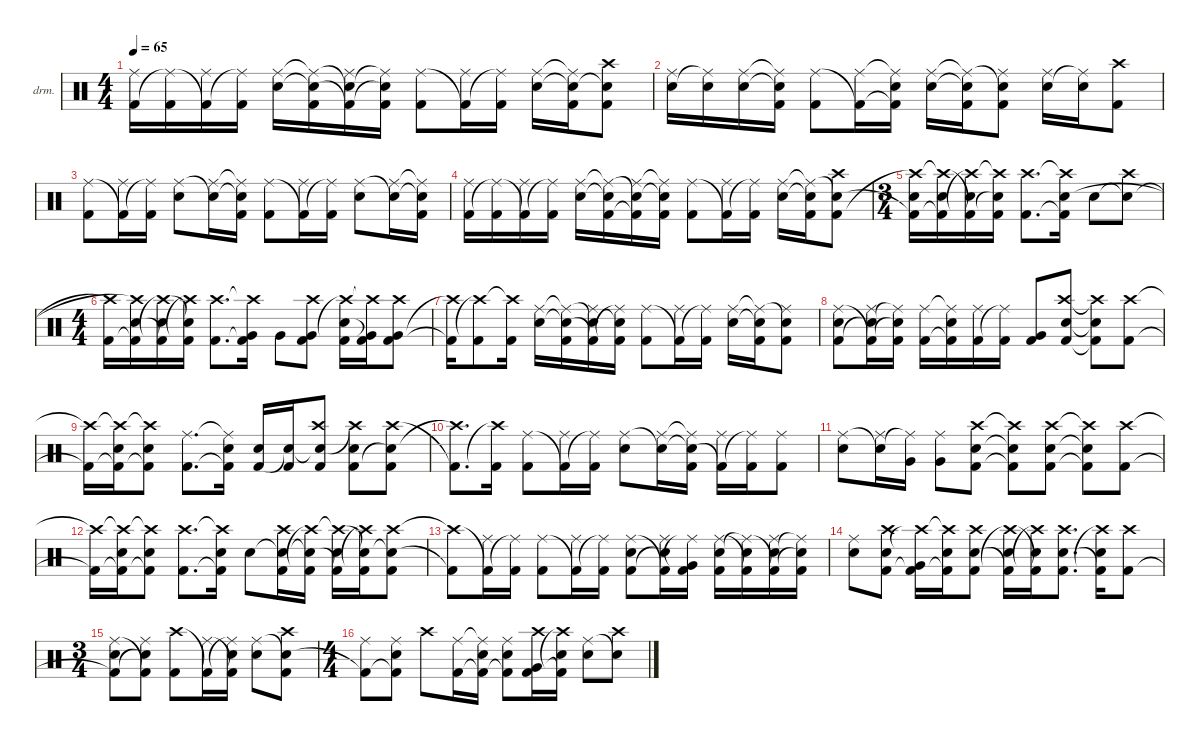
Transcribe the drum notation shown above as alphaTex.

\hideDynamics
\bracketExtendMode nobrackets
\firstSystemTrackNameOrientation horizontal
\otherSystemsTrackNameOrientation horizontal
\track ("Drums" "drm.") {instrument percussion}
\staff {score}
\articulation defaults
\ts (4 4)
\tempo 65
\clef neutral
\ks aminor
("Kick (hit) 2" "Ride (middle)"{acc #}).16{dy ff beam Down} ("Ride (middle)"{t acc #} "Kick (hit) 2").16{beam Down} ("Kick (hit) 2"{t} "Ride (middle)"{acc #}).16{beam Down} ("Ride (middle)"{t acc #} "Kick (hit) 2").16{beam Down} ("Ride (middle)"{acc #} "Snare (hit) 2").16{beam Down} ("Ride (middle)"{t acc #} "Snare (hit) 2"{t} "Kick (hit) 2").16{beam Down} ("Snare (hit) 2"{t} "Kick (hit) 2"{t} "Ride (middle)"{acc #}).16{beam Down} ("Ride (middle)"{t acc #} "Snare (hit) 2"{t} "Kick (hit) 2").16{beam Down} ("Ride (middle)"{acc #} "Kick (hit) 2").8{beam Down} ("Kick (hit) 2"{t} "Ride (middle)"{acc #}).16{beam Down} ("Ride (middle)"{t acc #} "Kick (hit) 2").16{beam Down} ("Ride (middle)"{acc #} "Snare (hit) 2").16{beam Down} ("Ride (middle)"{t acc #} "Snare (hit) 2"{t} "Kick (hit) 2").16{beam Down} ("Kick (hit) 2" "Snare (hit) 2"{t} "Crash high (hit)"{acc #}).8{beam Down} |
("Snare (hit) 2" "Ride (middle)"{acc #}).16{beam Down} ("Ride (middle)"{t acc #} "Snare (hit) 2").16{beam Down} ("Snare (hit) 2" "Ride (middle)"{acc #}).16{beam Down} ("Snare (hit) 2"{t} "Ride (middle)"{t acc #} "Kick (hit) 2").16{beam Down} ("Ride (middle)"{acc #} "Kick (hit) 2").8{beam Down} ("Kick (hit) 2"{t} "Ride (middle)"{acc #}).16{beam Down} ("Kick (hit) 2"{t} "Ride (middle)"{t acc #} "Snare (hit) 2").16{beam Down} ("Ride (middle)"{acc #} "Snare (hit) 2").16{beam Down} ("Ride (middle)"{t acc #} "Snare (hit) 2"{t} "Kick (hit) 2").16{beam Down} ("Snare (hit) 2"{t} "Kick (hit) 2" "Ride (middle)"{acc #}).8{beam Down} ("Snare (hit) 2" "Ride (middle)"{acc #}).16{beam Down} ("Ride (middle)"{t acc #} "Snare (hit) 2").16{beam Down} ("Kick (hit) 2" "Crash high (hit)"{acc #}).8{beam Down} |
("Ride (middle)"{acc #} "Kick (hit) 2").8{beam Down} ("Kick (hit) 2"{t} "Ride (middle)"{acc #}).16{beam Down} ("Ride (middle)"{t acc #} "Kick (hit) 2").16{beam Down} ("Ride (middle)"{acc #} "Snare (hit) 2").8{beam Down} ("Snare (hit) 2"{t} "Ride (middle)"{acc #}).16{beam Down} ("Snare (hit) 2"{t} "Ride (middle)"{t acc #} "Kick (hit) 2").16{beam Down} ("Ride (middle)"{acc #} "Kick (hit) 2").8{beam Down} ("Kick (hit) 2"{t} "Ride (middle)"{acc #}).16{beam Down} ("Ride (middle)"{t acc #} "Kick (hit) 2").16{beam Down} ("Ride (middle)"{acc #} "Snare (hit) 2").8{beam Down} ("Snare (hit) 2"{t} "Ride (middle)"{acc #}).16{beam Down} ("Snare (hit) 2"{t} "Ride (middle)"{t acc #} "Kick (hit) 2").16{beam Down} |
("Kick (hit) 2" "Ride (middle)"{acc #}).16{beam Down} ("Ride (middle)"{t acc #} "Kick (hit) 2").16{beam Down} ("Kick (hit) 2"{t} "Ride (middle)"{acc #}).16{beam Down} ("Ride (middle)"{t acc #} "Kick (hit) 2").16{beam Down} ("Ride (middle)"{acc #} "Snare (hit) 2").16{beam Down} ("Ride (middle)"{t acc #} "Snare (hit) 2"{t} "Kick (hit) 2").16{beam Down} ("Snare (hit) 2"{t} "Ride (middle)"{acc #} "Kick (hit) 2"{t}).16{beam Down} ("Snare (hit) 2"{t} "Ride (middle)"{t acc #} "Kick (hit) 2").16{beam Down} ("Ride (middle)"{acc #} "Kick (hit) 2").8{beam Down} ("Kick (hit) 2"{t} "Ride (middle)"{acc #}).16{beam Down} ("Ride (middle)"{t acc #} "Kick (hit) 2").16{beam Down} ("Ride (middle)"{acc #} "Snare (hit) 2").16{beam Down} ("Ride (middle)"{t acc #} "Snare (hit) 2"{t} "Kick (hit) 2").16{beam Down} ("Snare (hit) 2"{t} "Kick (hit) 2" "Crash high (hit)"{acc #}).8{beam Down} |
\ts (3 4)
("Kick (hit) 2"{t} "Crash high (hit)"{t acc #} "Snare (hit) 2").16{beam Down} ("Kick (hit) 2"{t} "Crash high (hit)"{t acc #} "Snare (hit) 2").16{beam Down} ("Crash high (hit)"{t acc #} "Kick (hit) 2"{t} "Snare (hit) 2").16{beam Down} ("Crash high (hit)"{t acc #} "Snare (hit) 2"{t} "Kick (hit) 2").16{beam Down} ("Kick (hit) 2" "Crash high (hit)"{acc #}).8{d beam Down} ("Kick (hit) 2"{t} "Crash high (hit)"{t acc #} "Snare (hit) 2").16{beam Down} "Snare (hit) 2".8{beam Down} ("Snare (hit) 2"{t} "Crash high (hit)"{acc #}).8{beam Down} |
\ts (4 4)
("Crash high (hit)"{t acc #} "Kick (hit) 2").16{beam Down} ("Snare (hit) 2" "Kick (hit) 2"{t} "Crash high (hit)"{t acc #}).16{beam Down} ("Kick (hit) 2"{t} "Crash high (hit)"{t acc #} "Snare (hit) 2").16{beam Down} ("Crash high (hit)"{t acc #} "Snare (hit) 2"{t} "Kick (hit) 2").16{beam Down} ("Kick (hit) 2" "Crash high (hit)"{acc #}).8{d beam Down} ("Kick (hit) 2"{t} "Crash high (hit)"{t acc #} "Very Low Tom (hit)").16{beam Down} "Very Low Tom (hit)".8{beam Down} ("Kick (hit) 2" "Very Low Tom (hit)" "Crash high (hit)"{acc #}).8{beam Down} ("Crash high (hit)"{t acc #} "Snare (hit) 2" "Kick (hit) 2").16{beam Down} ("Crash high (hit)"{t acc #} "Kick (hit) 2"{t} "Very Low Tom (hit)").16{beam Down} ("Kick (hit) 2" "Very Low Tom (hit)" "Crash high (hit)"{acc #}).8{beam Down} |
("Kick (hit) 2"{t} "Crash high (hit)"{t acc #}).16{beam Down} ("Crash high (hit)"{t acc #} "Kick (hit) 2").8{beam Down} ("Crash high (hit)"{t acc #} "Kick (hit) 2").16{beam Down} ("Ride (middle)"{acc #} "Snare (hit) 2").16{beam Down} ("Ride (middle)"{t acc #} "Snare (hit) 2"{t} "Kick (hit) 2").16{beam Down} ("Snare (hit) 2"{t} "Kick (hit) 2"{t} "Ride (middle)"{acc #}).16{beam Down} ("Snare (hit) 2"{t} "Ride (middle)"{t acc #} "Kick (hit) 2").16{beam Down} ("Ride (middle)"{acc #} "Kick (hit) 2").8{beam Down} ("Kick (hit) 2"{t} "Ride (middle)"{acc #}).16{beam Down} ("Ride (middle)"{t acc #} "Kick (hit) 2").16{beam Down} ("Ride (middle)"{acc #} "Snare (hit) 2").16{beam Down} ("Ride (middle)"{t acc #} "Snare (hit) 2"{t} "Kick (hit) 2").16{beam Down} ("Snare (hit) 2"{t} "Kick (hit) 2" "Ride (middle)"{acc #}).8{beam Down} |
("Ride (middle)"{acc #} "Kick (hit) 2" "Snare (hit) 2").8{beam Down} ("Kick (hit) 2"{t} "Snare (hit) 2"{t} "Ride (middle)"{acc #}).16{beam Down} ("Snare (hit) 2"{t} "Ride (middle)"{t acc #} "Kick (hit) 2").16{beam Down} ("Kick (hit) 2" "Ride (middle)"{acc #}).16{beam Down} ("Kick (hit) 2"{t} "Ride (middle)"{t acc #} "Snare (hit) 2").16{beam Down} ("Kick (hit) 2" "Ride (middle)"{acc #}).16{beam Down} ("Ride (middle)"{t acc #} "Kick (hit) 2").16{beam Down} ("Kick (hit) 2" "Very Low Tom (hit)").8{beam Up} ("Snare (hit) 2" "Kick (hit) 2" "Crash high (hit)"{acc #}).8{beam Up} ("Snare (hit) 2"{t} "Kick (hit) 2"{t} "Crash high (hit)"{t acc #}).8{beam Down} ("Kick (hit) 2" "Crash high (hit)"{acc #}).8{beam Down} |
("Kick (hit) 2"{t} "Crash high (hit)"{t acc #}).16{beam Down} ("Kick (hit) 2"{t} "Crash high (hit)"{t acc #} "Snare (hit) 2").16{beam Down} ("Kick (hit) 2"{t} "Crash high (hit)"{t acc #} "Snare (hit) 2").8{beam Down} ("Kick (hit) 2" "Ride (middle)"{acc #}).8{d beam Down} ("Kick (hit) 2"{t} "Ride (middle)"{t acc #} "Snare (hit) 2").16{beam Down} ("Kick (hit) 2" "Snare (hit) 2").16{beam Up} ("Snare (hit) 2"{t} "Kick (hit) 2").16{beam Up} ("Snare (hit) 2"{t} "Kick (hit) 2" "Crash high (hit)"{acc #}).8{beam Up} ("Crash high (hit)"{t acc #} "Kick (hit) 2" "Snare (hit) 2").8{beam Down} ("Crash high (hit)"{acc #} "Snare (hit) 2"{t} "Kick (hit) 2").8{beam Down} |
("Kick (hit) 2"{t} "Crash high (hit)"{t acc #}).8{d beam Down} ("Crash high (hit)"{t acc #} "Kick (hit) 2").16{beam Down} ("Ride (middle)"{acc #} "Kick (hit) 2").8{beam Down} ("Kick (hit) 2"{t} "Ride (middle)"{acc #}).16{beam Down} ("Ride (middle)"{t acc #} "Kick (hit) 2").16{beam Down} ("Ride (middle)"{acc #} "Snare (hit) 2").8{beam Down} ("Snare (hit) 2"{t} "Ride (middle)"{acc #}).16{beam Down} ("Snare (hit) 2"{t} "Ride (middle)"{t acc #} "Kick (hit) 2").16{beam Down} ("Kick (hit) 2"{t} "Ride (middle)"{acc #}).16{beam Down} ("Ride (middle)"{t acc #} "Kick (hit) 2").16{beam Down} ("Kick (hit) 2" "Ride (middle)"{acc #}).8{beam Down} |
("Ride (middle)"{acc #} "Snare (hit) 2").8{beam Down} ("Snare (hit) 2"{t} "Ride (middle)"{acc #}).16{beam Down} ("Ride (middle)"{t acc #} "Very Low Tom (hit)").16{beam Down} ("Very Low Tom (hit)" "Ride (middle)"{acc #}).8{beam Down} ("Kick (hit) 2" "Snare (hit) 2" "Crash high (hit)"{acc #}).8{beam Down} ("Kick (hit) 2"{t} "Snare (hit) 2"{t} "Crash high (hit)"{t acc #}).8{beam Down} ("Snare (hit) 2" "Kick (hit) 2" "Crash high (hit)"{acc #}).8{beam Down} ("Snare (hit) 2"{t} "Kick (hit) 2"{t} "Crash high (hit)"{t acc #}).8{beam Down} ("Kick (hit) 2" "Crash high (hit)"{acc #}).8{beam Down} |
("Kick (hit) 2"{t} "Crash high (hit)"{t acc #}).16{beam Down} ("Kick (hit) 2"{t} "Crash high (hit)"{t acc #} "Snare (hit) 2").16{beam Down} ("Kick (hit) 2"{t} "Crash high (hit)"{t acc #} "Snare (hit) 2").8{beam Down} ("Kick (hit) 2" "Crash high (hit)"{acc #}).8{d beam Down} ("Kick (hit) 2"{t} "Crash high (hit)"{t acc #} "Snare (hit) 2").16{beam Down} "Snare (hit) 2".8{beam Down} ("Snare (hit) 2"{t} "Kick (hit) 2" "Crash high (hit)"{acc #}).16{beam Down} ("Snare (hit) 2"{t} "Crash high (hit)"{t acc #} "Kick (hit) 2").16{beam Down} ("Kick (hit) 2"{t} "Crash high (hit)"{t acc #} "Snare (hit) 2").16{beam Down} ("Crash high (hit)"{t acc #} "Snare (hit) 2"{t} "Kick (hit) 2").16{beam Down} ("Crash high (hit)"{acc #} "Snare (hit) 2"{t} "Kick (hit) 2").8{beam Down} |
("Crash high (hit)"{t acc #} "Kick (hit) 2"{t}).8{beam Down} ("Kick (hit) 2"{t} "Ride (middle)"{acc #}).16{beam Down} ("Ride (middle)"{t acc #} "Kick (hit) 2").16{beam Down} ("Ride (middle)"{acc #} "Kick (hit) 2").8{beam Down} ("Kick (hit) 2"{t} "Ride (middle)"{acc #}).16{beam Down} ("Ride (middle)"{t acc #} "Kick (hit) 2").16{beam Down} ("Ride (middle)"{acc #} "Kick (hit) 2" "Snare (hit) 2").8{beam Down} ("Kick (hit) 2"{t} "Snare (hit) 2"{t} "Ride (middle)"{acc #}).16{beam Down} ("Ride (middle)"{t acc #} "Kick (hit) 2" "Very Low Tom (hit)").16{beam Down} ("Snare (hit) 2" "Ride (middle)"{acc #} "Kick (hit) 2").16{beam Down} ("Ride (middle)"{t acc #} "Kick (hit) 2"{t} "Snare (hit) 2").16{beam Down} ("Kick (hit) 2"{t} "Snare (hit) 2" "Ride (middle)"{acc #}).16{beam Down} ("Snare (hit) 2"{t} "Ride (middle)"{t acc #} "Kick (hit) 2").16{beam Down} |
("Snare (hit) 2" "Ride (middle)"{acc #}).8{beam Down} ("Snare (hit) 2" "Kick (hit) 2" "Crash high (hit)"{acc #}).8{beam Down} ("Crash high (hit)"{t acc #} "Kick (hit) 2"{t} "Very Low Tom (hit)").16{beam Down} ("Crash high (hit)"{t acc #} "Kick (hit) 2"{t} "Snare (hit) 2").16{beam Down} ("Snare (hit) 2" "Kick (hit) 2" "Crash high (hit)"{acc #}).8{beam Down} ("Kick (hit) 2"{t} "Crash high (hit)"{t acc #} "Snare (hit) 2").16{beam Down} ("Crash high (hit)"{t acc #} "Kick (hit) 2"{t} "Snare (hit) 2").16{beam Down} ("Snare (hit) 2" "Kick (hit) 2" "Crash high (hit)"{acc #}).8{d beam Down} ("Kick (hit) 2"{t} "Crash high (hit)"{t acc #} "Snare (hit) 2").16{beam Down} ("Crash high (hit)"{acc #} "Kick (hit) 2").8{beam Down} |
\ts (3 4)
("Ride (middle)"{acc #} "Kick (hit) 2"{t} "Snare (hit) 2").8{beam Down} ("Kick (hit) 2"{t} "Snare (hit) 2"{t} "Ride (middle)"{acc #}).8{beam Down} ("Crash high (hit)"{acc #} "Kick (hit) 2").8{beam Down} ("Kick (hit) 2"{t} "Ride (middle)"{acc #}).16{beam Down} ("Ride (middle)"{t acc #} "Kick (hit) 2"{t} "Snare (hit) 2").16{beam Down} ("Ride (middle)"{acc #} "Snare (hit) 2").8{beam Down} ("Snare (hit) 2"{t} "Crash high (hit)"{acc #} "Kick (hit) 2").8{beam Down} |
\ts (4 4)
("Kick (hit) 2"{t} "Ride (middle)"{acc #}).8{beam Down} ("Kick (hit) 2"{t} "Snare (hit) 2" "Ride (middle)"{acc #}).8{beam Down} "Crash high (hit)"{acc #}.8{beam Down} ("Ride (middle)"{acc #} "Kick (hit) 2").16{beam Down} ("Ride (middle)"{t acc #} "Kick (hit) 2"{t} "Snare (hit) 2").16{beam Down} ("Snare (hit) 2" "Kick (hit) 2"{t} "Ride (middle)"{acc #}).8{beam Down} ("Very Low Tom (hit)" "Kick (hit) 2" "Crash high (hit)"{acc #}).16{beam Down} ("Kick (hit) 2"{t} "Crash high (hit)"{t acc #} "Snare (hit) 2").16{beam Down} ("Ride (middle)"{acc #} "Snare (hit) 2").8{beam Down} ("Snare (hit) 2"{t} "Crash high (hit)"{acc #}).8{beam Down}
